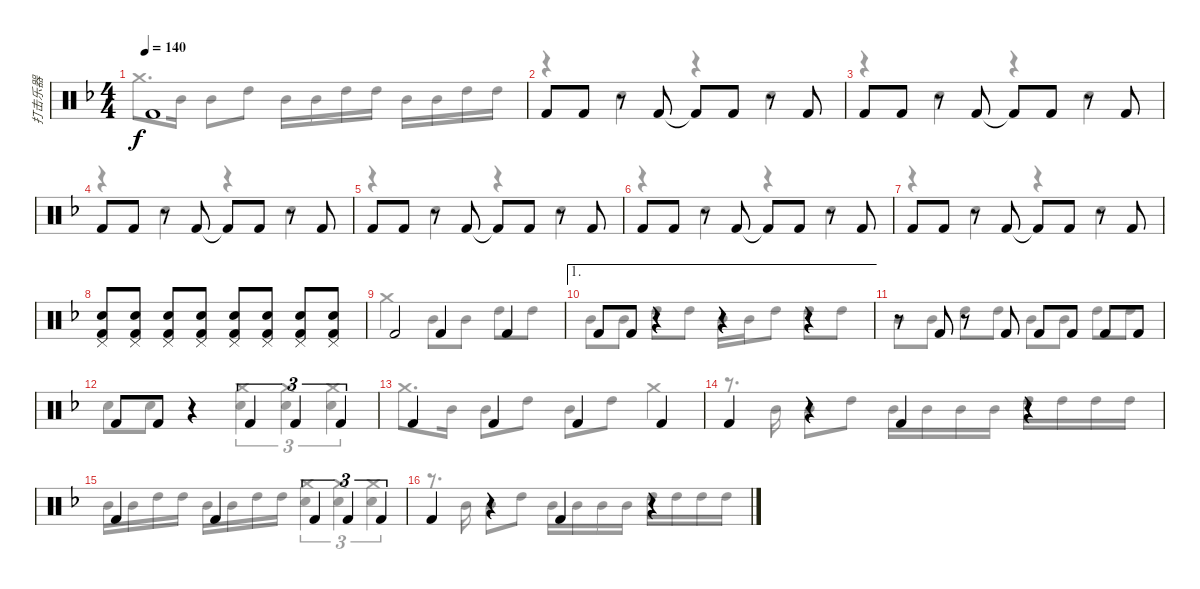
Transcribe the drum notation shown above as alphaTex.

\track ("打击乐器" "打击乐器") {instrument percussion}
\staff {score}
\articulation defaults
\voice
\ts (4 4)
\tempo 140
\clef neutral
\ks f "Kick (hit) 2".1{dy f}
|
"Kick (hit) 2".8 "Kick (hit) 2".8 r.8 "Kick (hit) 2".8 "Kick (hit) 2"{t}.8 "Kick (hit) 2".8 r.8 "Kick (hit) 2".8 |
"Kick (hit) 2".8 "Kick (hit) 2".8 r.8 "Kick (hit) 2".8 "Kick (hit) 2"{t}.8 "Kick (hit) 2".8 r.8 "Kick (hit) 2".8 |
"Kick (hit) 2".8 "Kick (hit) 2".8 r.8 "Kick (hit) 2".8 "Kick (hit) 2"{t}.8 "Kick (hit) 2".8 r.8 "Kick (hit) 2".8 |
"Kick (hit) 2".8 "Kick (hit) 2".8 r.8 "Kick (hit) 2".8 "Kick (hit) 2"{t}.8 "Kick (hit) 2".8 r.8 "Kick (hit) 2".8 |
"Kick (hit) 2".8 "Kick (hit) 2".8 r.8 "Kick (hit) 2".8 "Kick (hit) 2"{t}.8 "Kick (hit) 2".8 r.8 "Kick (hit) 2".8 |
"Kick (hit) 2".8 "Kick (hit) 2".8 r.8 "Kick (hit) 2".8 "Kick (hit) 2"{t}.8 "Kick (hit) 2".8 r.8 "Kick (hit) 2".8 |
("Pedal Hi-Hat (hit)" "Snare (hit) 2" "Kick (hit) 2").8 ("Pedal Hi-Hat (hit)" "Snare (hit) 2" "Kick (hit) 2").8 ("Pedal Hi-Hat (hit)" "Snare (hit) 2" "Kick (hit) 2").8 ("Pedal Hi-Hat (hit)" "Snare (hit) 2" "Kick (hit) 2").8 ("Pedal Hi-Hat (hit)" "Snare (hit) 2" "Kick (hit) 2").8 ("Pedal Hi-Hat (hit)" "Snare (hit) 2" "Kick (hit) 2").8 ("Pedal Hi-Hat (hit)" "Snare (hit) 2" "Kick (hit) 2").8 ("Pedal Hi-Hat (hit)" "Snare (hit) 2" "Kick (hit) 2").8 |
"Kick (hit) 2".2 "Kick (hit) 2".4 "Kick (hit) 2".4 |
\ae 1 "Kick (hit) 2".8 "Kick (hit) 2".8
r.4 r.4 r.4 |
r.8 "Kick (hit) 2".8 r.8 "Kick (hit) 2".8 "Kick (hit) 2".8 "Kick (hit) 2".8 "Kick (hit) 2".8 "Kick (hit) 2".8 |
"Kick (hit) 2".8 "Kick (hit) 2".8 r.4 "Kick (hit) 2".4{tu (3 2)} "Kick (hit) 2".4{tu (3 2)} "Kick (hit) 2".4{tu (3 2)} |
"Kick (hit) 2".4 "Kick (hit) 2".4 "Kick (hit) 2".4 "Kick (hit) 2".4 |
"Kick (hit) 2".4 r.4 "Kick (hit) 2".4 r.4 |
"Kick (hit) 2".4 "Kick (hit) 2".4 "Kick (hit) 2".4{tu (3 2)} "Kick (hit) 2".4{tu (3 2)} "Kick (hit) 2".4{tu (3 2)} |
"Kick (hit) 2".4 r.4 "Kick (hit) 2".4 r.4
\voice
\clef neutral
\ottava regular
\simile none
\ks f "Crash medium (hit)".8{d dy f} "Mid Tom (hit)".16 "Mid Tom (hit)".8 "High Tom (hit)".8 "Mid Tom (hit)".16 "Mid Tom (hit)".16 "High Tom (hit)".16 "High Tom (hit)".16 "Mid Tom (hit)".16 "Mid Tom (hit)".16 "High Tom (hit)".16 "High Tom (hit)".16
|
r.4 "Snare (hit) 2".4 r.4 "Snare (hit) 2".4 |
r.4 "Snare (hit) 2".4 r.4 "Snare (hit) 2".4 |
r.4 "Snare (hit) 2".4 r.4 "Snare (hit) 2".4 |
r.4 "Snare (hit) 2".4 r.4 "Snare (hit) 2".4 |
r.4 "Snare (hit) 2".4 r.4 "Snare (hit) 2".4 |
r.4 "Snare (hit) 2".4 r.4 "Snare (hit) 2".4 |
|
"Crash medium (hit)".2 "Mid Tom (hit)".8 "Mid Tom (hit)".8 "High Tom (hit)".8 "High Tom (hit)".8 |
"Mid Tom (hit)".8 "Mid Tom (hit)".8 "High Tom (hit)".8 "High Tom (hit)".8 "Mid Tom (hit)".16 "Mid Tom (hit)".16 "High Tom (hit)".8 "High Tom (hit)".8 "High Tom (hit)".8 |
"Mid Tom (hit)".8 "Mid Tom (hit)".8 "High Tom (hit)".8 "High Tom (hit)".8 "Mid Tom (hit)".8 "Mid Tom (hit)".8 "High Tom (hit)".8 "High Tom (hit)".8 |
"Snare (hit) 2".8 "Snare (hit) 2".8 r.4 ("Crash medium (hit)" "Snare (hit) 2").4{tu (3 2)} ("Crash medium (hit)" "Snare (hit) 2").4{tu (3 2)} ("Crash medium (hit)" "Snare (hit) 2").4{tu (3 2)} |
"Crash medium (hit)".8{d} "Mid Tom (hit)".16 "Mid Tom (hit)".8 "High Tom (hit)".8 "Mid Tom (hit)".8 "High Tom (hit)".8 "Crash medium (hit)".4 |
r.8{d} "Mid Tom (hit)".16 "Mid Tom (hit)".8 "High Tom (hit)".8 "Mid Tom (hit)".16 "Mid Tom (hit)".16 "Mid Tom (hit)".16 "Mid Tom (hit)".16 "High Tom (hit)".16 "High Tom (hit)".16 "High Tom (hit)".16 "High Tom (hit)".16 |
"Mid Tom (hit)".16 "Mid Tom (hit)".16 "High Tom (hit)".16 "High Tom (hit)".16 "Mid Tom (hit)".16 "Mid Tom (hit)".16 "High Tom (hit)".16 "High Tom (hit)".16 ("Crash medium (hit)" "Snare (hit) 2").4{tu (3 2)} ("Snare (hit) 2" "Crash medium (hit)").4{tu (3 2)} ("Crash medium (hit)" "Snare (hit) 2").4{tu (3 2)} |
r.8{d} "Mid Tom (hit)".16 "Mid Tom (hit)".8 "High Tom (hit)".8 "Mid Tom (hit)".16 "Mid Tom (hit)".16 "Mid Tom (hit)".16 "Mid Tom (hit)".16 "High Tom (hit)".16 "High Tom (hit)".16 "High Tom (hit)".16 "High Tom (hit)".16
